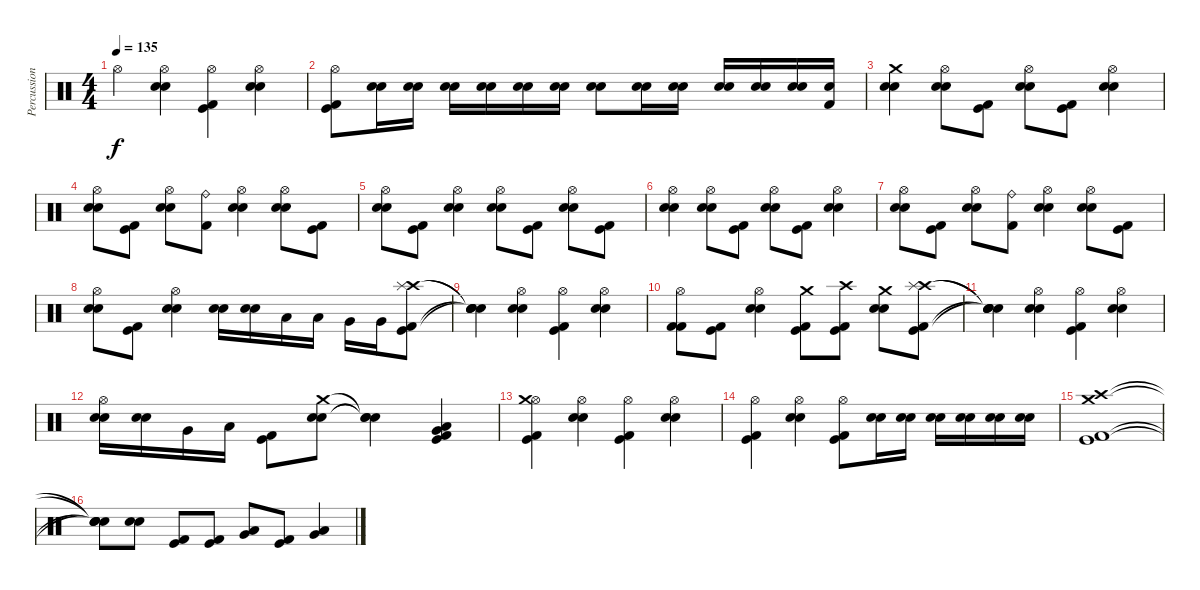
\track ("Percussion" "Percussion") {instrument percussion}
\staff {score}
\articulation defaults
\ts (4 4)
\tempo 135
\clef neutral
\ks c "Hi-Hat (open)".4{dy f}
("Hi-Hat (open)" "Electric Snare (hit)" "Metronome (bell)").4 ("Hi-Hat (open)" "Kick (hit)" "Kick (hit) 2").4 ("Hi-Hat (open)" "Electric Snare (hit)" "Metronome (bell)").4 |
("Hi-Hat (open)" "Kick (hit)" "Kick (hit) 2").8 ("Electric Snare (hit)" "Metronome (bell)").16 ("Electric Snare (hit)" "Metronome (bell)").16 ("Electric Snare (hit)" "Metronome (bell)").16 ("Electric Snare (hit)" "Metronome (bell)").16 ("Electric Snare (hit)" "Metronome (bell)").16 ("Electric Snare (hit)" "Metronome (bell)").16 ("Electric Snare (hit)" "Metronome (bell)").8 ("Electric Snare (hit)" "Metronome (bell)").16 ("Electric Snare (hit)" "Metronome (bell)").16 ("Electric Snare (hit)" "Metronome (bell)").16 ("Electric Snare (hit)" "Metronome (bell)").16 ("Electric Snare (hit)" "Metronome (bell)").16 ("Electric Snare (hit)" "Kick (hit) 2").16 |
("Crash medium (hit)" "Electric Snare (hit)" "Metronome (bell)").4 ("Hi-Hat (open)" "Electric Snare (hit)" "Metronome (bell)").8 ("Kick (hit)" "Kick (hit) 2").8 ("Hi-Hat (open)" "Electric Snare (hit)" "Metronome (bell)").8 ("Kick (hit)" "Kick (hit) 2").8 ("Hi-Hat (open)" "Electric Snare (hit)" "Metronome (bell)").4 |
("Hi-Hat (open)" "Electric Snare (hit)" "Metronome (bell)").8 ("Kick (hit)" "Kick (hit) 2").8 ("Hi-Hat (open)" "Electric Snare (hit)" "Metronome (bell)").8 ("Ride (bell)" "Kick (hit) 2").8 ("Hi-Hat (open)" "Electric Snare (hit)" "Metronome (bell)").4 ("Hi-Hat (open)" "Electric Snare (hit)" "Metronome (bell)").8 ("Kick (hit)" "Kick (hit) 2").8 |
("Hi-Hat (open)" "Electric Snare (hit)" "Metronome (bell)").8 ("Kick (hit)" "Kick (hit) 2").8 ("Hi-Hat (open)" "Electric Snare (hit)" "Metronome (bell)").4 ("Hi-Hat (open)" "Electric Snare (hit)" "Metronome (bell)").8 ("Kick (hit)" "Kick (hit) 2").8 ("Hi-Hat (open)" "Electric Snare (hit)" "Metronome (bell)").8 ("Kick (hit)" "Kick (hit) 2").8 |
("Hi-Hat (open)" "Electric Snare (hit)" "Metronome (bell)").4 ("Hi-Hat (open)" "Electric Snare (hit)" "Metronome (bell)").8 ("Kick (hit)" "Kick (hit) 2").8 ("Hi-Hat (open)" "Electric Snare (hit)" "Metronome (bell)").8 ("Kick (hit)" "Kick (hit) 2").8 ("Hi-Hat (open)" "Electric Snare (hit)" "Metronome (bell)").4 |
("Hi-Hat (open)" "Electric Snare (hit)" "Metronome (bell)").8 ("Kick (hit)" "Kick (hit) 2").8 ("Hi-Hat (open)" "Electric Snare (hit)" "Metronome (bell)").8 ("Ride (bell)" "Kick (hit) 2").8 ("Hi-Hat (open)" "Electric Snare (hit)" "Metronome (bell)").4 ("Hi-Hat (open)" "Electric Snare (hit)" "Metronome (bell)").8 ("Kick (hit)" "Kick (hit) 2").8 |
("Hi-Hat (open)" "Electric Snare (hit)" "Metronome (bell)").8 ("Kick (hit)" "Kick (hit) 2").8 ("Hi-Hat (open)" "Electric Snare (hit)" "Metronome (bell)").4 ("Electric Snare (hit)" "Metronome (bell)").16 ("Electric Snare (hit)" "Metronome (bell)").16 "Low Tom (hit)".16 "Low Tom (hit)".16 "Very Low Tom (hit)".16 "Very Low Tom (hit)".16 ("Crash high (hit)" "Splash (hit)" "Kick (hit)" "Kick (hit) 2").8 |
("Snare (hit)"{t} "Snare (hit)"{t} "Snare (hit)"{t} "Snare (hit)"{t}).4 ("Hi-Hat (open)" "Electric Snare (hit)" "Metronome (bell)").4 ("Hi-Hat (open)" "Kick (hit)" "Kick (hit) 2").4 ("Hi-Hat (open)" "Electric Snare (hit)" "Metronome (bell)").4 |
("Hi-Hat (open)" "Kick (hit) 2" "Kick (hit) 2").8 ("Kick (hit)" "Kick (hit) 2").8 ("Hi-Hat (open)" "Electric Snare (hit)" "Metronome (bell)").4 ("Crash medium (hit)" "Kick (hit)" "Kick (hit) 2").8 ("Crash high (hit)" "Kick (hit)" "Kick (hit) 2").8 ("Crash medium (hit)" "Electric Snare (hit)" "Metronome (bell)").8 ("Crash high (hit)" "Splash (hit)" "Kick (hit)" "Kick (hit) 2").8 |
("Snare (hit)"{t} "Snare (hit)"{t} "Snare (hit)"{t} "Snare (hit)"{t}).4 ("Hi-Hat (open)" "Electric Snare (hit)" "Metronome (bell)").4 ("Hi-Hat (open)" "Kick (hit)" "Kick (hit) 2").4 ("Hi-Hat (open)" "Electric Snare (hit)" "Metronome (bell)").4 |
("Hi-Hat (open)" "Electric Snare (hit)" "Metronome (bell)").16 ("Electric Snare (hit)" "Metronome (bell)").16 "Very Low Tom (hit)".16 "Low Floor Tom (hit)".16 ("Kick (hit)" "Kick (hit) 2").8 ("Crash medium (hit)" "Electric Snare (hit)" "Metronome (bell)").8 ("Snare (hit)"{t} "Snare (hit)"{t} "Snare (hit)"{t}).4 ("Very Low Tom (hit)" "Low Floor Tom (hit)" "Kick (hit)" "Kick (hit) 2").4 |
("Hi-Hat (open)" "Crash medium (hit)" "Kick (hit)" "Kick (hit) 2").4 ("Hi-Hat (open)" "Electric Snare (hit)" "Metronome (bell)").4 ("Hi-Hat (open)" "Kick (hit)" "Kick (hit) 2").4 ("Hi-Hat (open)" "Electric Snare (hit)" "Metronome (bell)").4 |
("Hi-Hat (open)" "Kick (hit)" "Kick (hit) 2").4 ("Hi-Hat (open)" "Electric Snare (hit)" "Metronome (bell)").4 ("Hi-Hat (open)" "Kick (hit)" "Kick (hit) 2").8 ("Electric Snare (hit)" "Metronome (bell)").16 ("Electric Snare (hit)" "Metronome (bell)").16 ("Electric Snare (hit)" "Metronome (bell)").16 ("Electric Snare (hit)" "Metronome (bell)").16 ("Electric Snare (hit)" "Metronome (bell)").16 ("Electric Snare (hit)" "Metronome (bell)").16 |
("Crash high (hit)" "Crash medium (hit)" "Kick (hit)" "Kick (hit) 2").1 |
("Snare (hit)"{t} "Snare (hit)"{t} "Snare (hit)"{t} "Snare (hit)"{t}).8 ("Electric Snare (hit)" "Metronome (bell)").8 ("Kick (hit)" "Kick (hit) 2").8 ("Kick (hit)" "Kick (hit) 2").8 ("Low Tom (hit)" "Very Low Tom (hit)").8 ("Kick (hit)" "Kick (hit) 2").8 ("Very Low Tom (hit)" "Low Floor Tom (hit)").4
